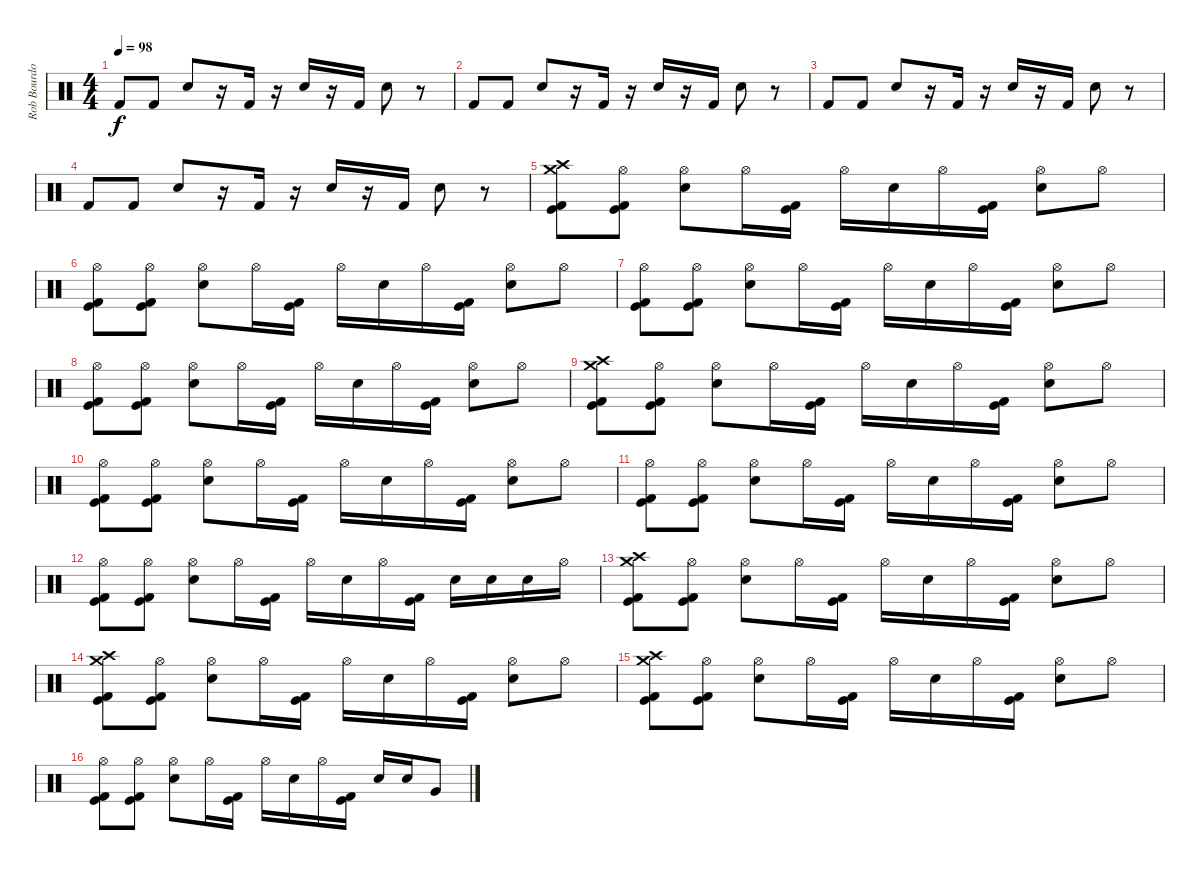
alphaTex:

\track ("Rob Bourdon (Drums)" "Rob Bourdo") {instrument percussion}
\staff {score}
\articulation defaults
\ts (4 4)
\tempo 98
\clef neutral
\ks c "Kick (hit) 2".8{dy f} "Kick (hit) 2".8 "Electric Snare (hit)".8
r.16 "Kick (hit) 2".16 r.16 "Electric Snare (hit)".16 r.16 "Kick (hit) 2".16 "Electric Snare (hit)".8 r.8 |
"Kick (hit) 2".8 "Kick (hit) 2".8 "Electric Snare (hit)".8 r.16 "Kick (hit) 2".16 r.16 "Electric Snare (hit)".16 r.16 "Kick (hit) 2".16 "Electric Snare (hit)".8 r.8 |
"Kick (hit) 2".8 "Kick (hit) 2".8 "Electric Snare (hit)".8 r.16 "Kick (hit) 2".16 r.16 "Electric Snare (hit)".16 r.16 "Kick (hit) 2".16 "Electric Snare (hit)".8 r.8 |
"Kick (hit) 2".8 "Kick (hit) 2".8 "Electric Snare (hit)".8 r.16 "Kick (hit) 2".16 r.16 "Electric Snare (hit)".16 r.16 "Kick (hit) 2".16 "Electric Snare (hit)".8 r.8 |
("Crash medium (hit)" "Crash high (hit)" "Kick (hit)" "Kick (hit) 2").8 ("Hi-Hat (open)" "Kick (hit)" "Kick (hit) 2").8 ("Hi-Hat (open)" "Electric Snare (hit)").8 "Hi-Hat (open)".16 ("Kick (hit)" "Kick (hit) 2").16 "Hi-Hat (open)".16 "Electric Snare (hit)".16 "Hi-Hat (open)".16 ("Kick (hit)" "Kick (hit) 2").16 ("Hi-Hat (open)" "Electric Snare (hit)").8 "Hi-Hat (open)".8 |
("Hi-Hat (open)" "Kick (hit)" "Kick (hit) 2").8 ("Hi-Hat (open)" "Kick (hit)" "Kick (hit) 2").8 ("Hi-Hat (open)" "Electric Snare (hit)").8 "Hi-Hat (open)".16 ("Kick (hit)" "Kick (hit) 2").16 "Hi-Hat (open)".16 "Electric Snare (hit)".16 "Hi-Hat (open)".16 ("Kick (hit)" "Kick (hit) 2").16 ("Hi-Hat (open)" "Electric Snare (hit)").8 "Hi-Hat (open)".8 |
("Hi-Hat (open)" "Kick (hit)" "Kick (hit) 2").8 ("Hi-Hat (open)" "Kick (hit)" "Kick (hit) 2").8 ("Hi-Hat (open)" "Electric Snare (hit)").8 "Hi-Hat (open)".16 ("Kick (hit)" "Kick (hit) 2").16 "Hi-Hat (open)".16 "Electric Snare (hit)".16 "Hi-Hat (open)".16 ("Kick (hit)" "Kick (hit) 2").16 ("Hi-Hat (open)" "Electric Snare (hit)").8 "Hi-Hat (open)".8 |
("Hi-Hat (open)" "Kick (hit)" "Kick (hit) 2").8 ("Hi-Hat (open)" "Kick (hit)" "Kick (hit) 2").8 ("Hi-Hat (open)" "Electric Snare (hit)").8 "Hi-Hat (open)".16 ("Kick (hit)" "Kick (hit) 2").16 "Hi-Hat (open)".16 "Electric Snare (hit)".16 "Hi-Hat (open)".16 ("Kick (hit)" "Kick (hit) 2").16 ("Hi-Hat (open)" "Electric Snare (hit)").8 "Hi-Hat (open)".8 |
("Crash medium (hit)" "Crash high (hit)" "Kick (hit)" "Kick (hit) 2").8 ("Hi-Hat (open)" "Kick (hit)" "Kick (hit) 2").8 ("Hi-Hat (open)" "Electric Snare (hit)").8 "Hi-Hat (open)".16 ("Kick (hit)" "Kick (hit) 2").16 "Hi-Hat (open)".16 "Electric Snare (hit)".16 "Hi-Hat (open)".16 ("Kick (hit)" "Kick (hit) 2").16 ("Hi-Hat (open)" "Electric Snare (hit)").8 "Hi-Hat (open)".8 |
("Hi-Hat (open)" "Kick (hit)" "Kick (hit) 2").8 ("Hi-Hat (open)" "Kick (hit)" "Kick (hit) 2").8 ("Hi-Hat (open)" "Electric Snare (hit)").8 "Hi-Hat (open)".16 ("Kick (hit)" "Kick (hit) 2").16 "Hi-Hat (open)".16 "Electric Snare (hit)".16 "Hi-Hat (open)".16 ("Kick (hit)" "Kick (hit) 2").16 ("Hi-Hat (open)" "Electric Snare (hit)").8 "Hi-Hat (open)".8 |
("Hi-Hat (open)" "Kick (hit)" "Kick (hit) 2").8 ("Hi-Hat (open)" "Kick (hit)" "Kick (hit) 2").8 ("Hi-Hat (open)" "Electric Snare (hit)").8 "Hi-Hat (open)".16 ("Kick (hit)" "Kick (hit) 2").16 "Hi-Hat (open)".16 "Electric Snare (hit)".16 "Hi-Hat (open)".16 ("Kick (hit)" "Kick (hit) 2").16 ("Hi-Hat (open)" "Electric Snare (hit)").8 "Hi-Hat (open)".8 |
("Hi-Hat (open)" "Kick (hit)" "Kick (hit) 2").8 ("Hi-Hat (open)" "Kick (hit)" "Kick (hit) 2").8 ("Hi-Hat (open)" "Electric Snare (hit)").8 "Hi-Hat (open)".16 ("Kick (hit)" "Kick (hit) 2").16 "Hi-Hat (open)".16 "Electric Snare (hit)".16 "Hi-Hat (open)".16 ("Kick (hit)" "Kick (hit) 2").16 "Electric Snare (hit)".16 "Electric Snare (hit)".16 "Electric Snare (hit)".16 "Hi-Hat (open)".16 |
("Crash medium (hit)" "Crash high (hit)" "Kick (hit)" "Kick (hit) 2").8 ("Hi-Hat (open)" "Kick (hit)" "Kick (hit) 2").8 ("Hi-Hat (open)" "Electric Snare (hit)").8 "Hi-Hat (open)".16 ("Kick (hit)" "Kick (hit) 2").16 "Hi-Hat (open)".16 "Electric Snare (hit)".16 "Hi-Hat (open)".16 ("Kick (hit)" "Kick (hit) 2").16 ("Hi-Hat (open)" "Electric Snare (hit)").8 "Hi-Hat (open)".8 |
("Crash medium (hit)" "Crash high (hit)" "Kick (hit)" "Kick (hit) 2").8 ("Hi-Hat (open)" "Kick (hit)" "Kick (hit) 2").8 ("Hi-Hat (open)" "Electric Snare (hit)").8 "Hi-Hat (open)".16 ("Kick (hit)" "Kick (hit) 2").16 "Hi-Hat (open)".16 "Electric Snare (hit)".16 "Hi-Hat (open)".16 ("Kick (hit)" "Kick (hit) 2").16 ("Hi-Hat (open)" "Electric Snare (hit)").8 "Hi-Hat (open)".8 |
("Crash medium (hit)" "Crash high (hit)" "Kick (hit)" "Kick (hit) 2").8 ("Hi-Hat (open)" "Kick (hit)" "Kick (hit) 2").8 ("Hi-Hat (open)" "Electric Snare (hit)").8 "Hi-Hat (open)".16 ("Kick (hit)" "Kick (hit) 2").16 "Hi-Hat (open)".16 "Electric Snare (hit)".16 "Hi-Hat (open)".16 ("Kick (hit)" "Kick (hit) 2").16 ("Hi-Hat (open)" "Electric Snare (hit)").8 "Hi-Hat (open)".8 |
("Hi-Hat (open)" "Kick (hit)" "Kick (hit) 2").8 ("Hi-Hat (open)" "Kick (hit)" "Kick (hit) 2").8 ("Hi-Hat (open)" "Electric Snare (hit)").8 "Hi-Hat (open)".16 ("Kick (hit)" "Kick (hit) 2").16 "Hi-Hat (open)".16 "Electric Snare (hit)".16 "Hi-Hat (open)".16 ("Kick (hit)" "Kick (hit) 2").16 "Electric Snare (hit)".16 "Electric Snare (hit)".16 "Very Low Tom (hit)".8
